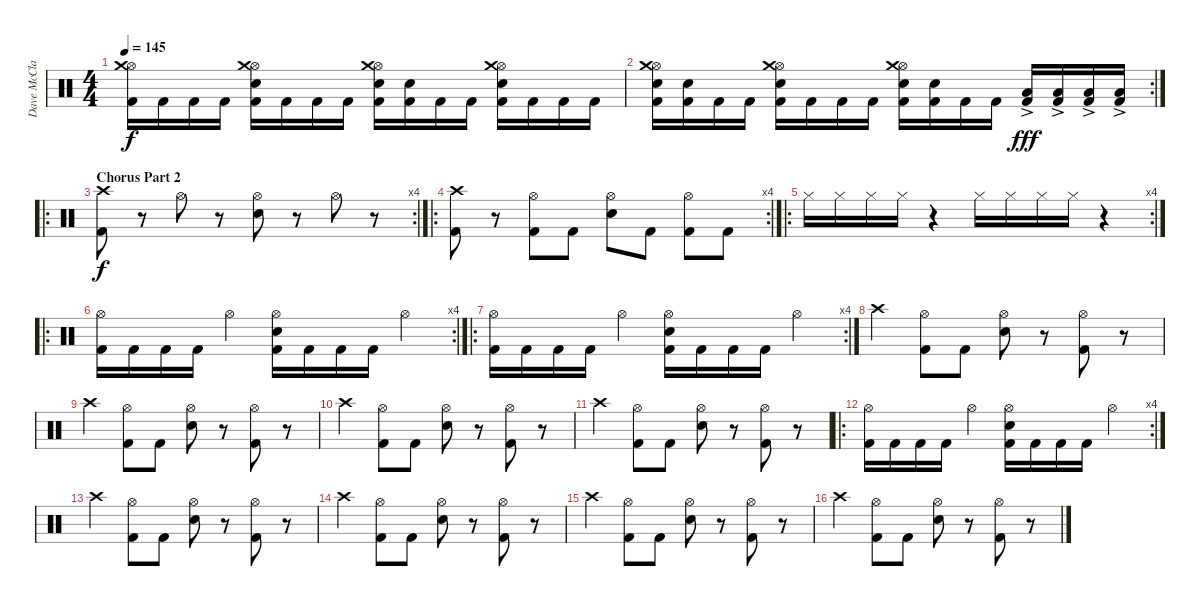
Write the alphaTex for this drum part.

\track ("Dave McClain" "Dave McCla") {instrument percussion}
\staff {score}
\articulation defaults
\ts (4 4)
\tempo 145
\clef neutral
\ks c
("Hi-Hat (open)" "Crash medium (hit)" "Kick (hit) 2").16{dy f} "Kick (hit) 2".16 "Kick (hit) 2".16 "Kick (hit) 2".16 ("Hi-Hat (open)" "Crash medium (hit)" "Snare (hit) 2" "Kick (hit) 2").16 "Kick (hit) 2".16 "Kick (hit) 2".16 "Kick (hit) 2".16 ("Hi-Hat (open)" "Crash medium (hit)" "Snare (hit) 2" "Kick (hit) 2").16 ("Snare (hit) 2" "Kick (hit) 2").16 "Kick (hit) 2".16 "Kick (hit) 2".16 ("Hi-Hat (open)" "Crash medium (hit)" "Snare (hit) 2" "Kick (hit) 2").16 "Kick (hit) 2".16 "Kick (hit) 2".16 "Kick (hit) 2".16 |
\rc 2
("Hi-Hat (open)" "Crash medium (hit)" "Snare (hit) 2" "Kick (hit) 2").16 ("Snare (hit) 2" "Kick (hit) 2").16 "Kick (hit) 2".16 "Kick (hit) 2".16 ("Hi-Hat (open)" "Crash medium (hit)" "Snare (hit) 2" "Kick (hit) 2").16 "Kick (hit) 2".16 "Kick (hit) 2".16 "Kick (hit) 2".16 ("Hi-Hat (open)" "Crash medium (hit)" "Snare (hit) 2" "Kick (hit) 2").16 ("Snare (hit) 2" "Kick (hit) 2").16 "Kick (hit) 2".16 "Kick (hit) 2".16 ("Low Tom (hit)"{ac} "Kick (hit) 2").16{dy fff} ("Low Tom (hit)"{ac} "Kick (hit) 2").16 ("Low Tom (hit)"{ac} "Kick (hit) 2").16 ("Low Tom (hit)"{ac} "Kick (hit) 2").16 |
\ro
\rc 4
\section ("" "Chorus Part 2")
("Crash high (hit)" "Kick (hit) 2").8{dy f} r.8 "Hi-Hat (open)".8 r.8 ("Hi-Hat (open)" "Snare (hit) 2").8 r.8 "Hi-Hat (open)".8 r.8 |
\ro
\rc 4
("Crash high (hit)" "Kick (hit) 2").8 r.8 ("Hi-Hat (open)" "Kick (hit) 2").8 "Kick (hit) 2".8 ("Hi-Hat (open)" "Snare (hit) 2").8 "Kick (hit) 2".8 ("Hi-Hat (open)" "Kick (hit) 2").8 "Kick (hit) 2".8 |
\ro
\rc 4 "Hi-Hat (closed)".16 "Hi-Hat (closed)".16 "Hi-Hat (closed)".16 "Hi-Hat (closed)".16
r.4 "Hi-Hat (closed)".16 "Hi-Hat (closed)".16 "Hi-Hat (closed)".16 "Hi-Hat (closed)".16 r.4 |
\ro
\rc 4
("Hi-Hat (open)" "Kick (hit) 2").16 "Kick (hit) 2".16 "Kick (hit) 2".16 "Kick (hit) 2".16 "Hi-Hat (open)".4 ("Hi-Hat (open)" "Snare (hit) 2" "Kick (hit) 2").16 "Kick (hit) 2".16 "Kick (hit) 2".16 "Kick (hit) 2".16 "Hi-Hat (open)".4 |
\ro
\rc 4
("Hi-Hat (open)" "Kick (hit) 2").16 "Kick (hit) 2".16 "Kick (hit) 2".16 "Kick (hit) 2".16 "Hi-Hat (open)".4 ("Hi-Hat (open)" "Snare (hit) 2" "Kick (hit) 2").16 "Kick (hit) 2".16 "Kick (hit) 2".16 "Kick (hit) 2".16 "Hi-Hat (open)".4 |
"Crash high (hit)".4 ("Hi-Hat (open)" "Kick (hit) 2").8 "Kick (hit) 2".8 ("Hi-Hat (open)" "Snare (hit) 2").8 r.8 ("Hi-Hat (open)" "Kick (hit) 2").8 r.8 |
"Crash high (hit)".4 ("Hi-Hat (open)" "Kick (hit) 2").8 "Kick (hit) 2".8 ("Hi-Hat (open)" "Snare (hit) 2").8 r.8 ("Hi-Hat (open)" "Kick (hit) 2").8 r.8 |
"Crash high (hit)".4 ("Hi-Hat (open)" "Kick (hit) 2").8 "Kick (hit) 2".8 ("Hi-Hat (open)" "Snare (hit) 2").8 r.8 ("Hi-Hat (open)" "Kick (hit) 2").8 r.8 |
"Crash high (hit)".4 ("Hi-Hat (open)" "Kick (hit) 2").8 "Kick (hit) 2".8 ("Hi-Hat (open)" "Snare (hit) 2").8 r.8 ("Hi-Hat (open)" "Kick (hit) 2").8 r.8 |
\ro
\rc 4
("Hi-Hat (open)" "Kick (hit) 2").16 "Kick (hit) 2".16 "Kick (hit) 2".16 "Kick (hit) 2".16 "Hi-Hat (open)".4 ("Hi-Hat (open)" "Snare (hit) 2" "Kick (hit) 2").16 "Kick (hit) 2".16 "Kick (hit) 2".16 "Kick (hit) 2".16 "Hi-Hat (open)".4 |
"Crash high (hit)".4 ("Hi-Hat (open)" "Kick (hit) 2").8 "Kick (hit) 2".8 ("Hi-Hat (open)" "Snare (hit) 2").8 r.8 ("Hi-Hat (open)" "Kick (hit) 2").8 r.8 |
"Crash high (hit)".4 ("Hi-Hat (open)" "Kick (hit) 2").8 "Kick (hit) 2".8 ("Hi-Hat (open)" "Snare (hit) 2").8 r.8 ("Hi-Hat (open)" "Kick (hit) 2").8 r.8 |
"Crash high (hit)".4 ("Hi-Hat (open)" "Kick (hit) 2").8 "Kick (hit) 2".8 ("Hi-Hat (open)" "Snare (hit) 2").8 r.8 ("Hi-Hat (open)" "Kick (hit) 2").8 r.8 |
"Crash high (hit)".4 ("Hi-Hat (open)" "Kick (hit) 2").8 "Kick (hit) 2".8 ("Hi-Hat (open)" "Snare (hit) 2").8 r.8 ("Hi-Hat (open)" "Kick (hit) 2").8 r.8
